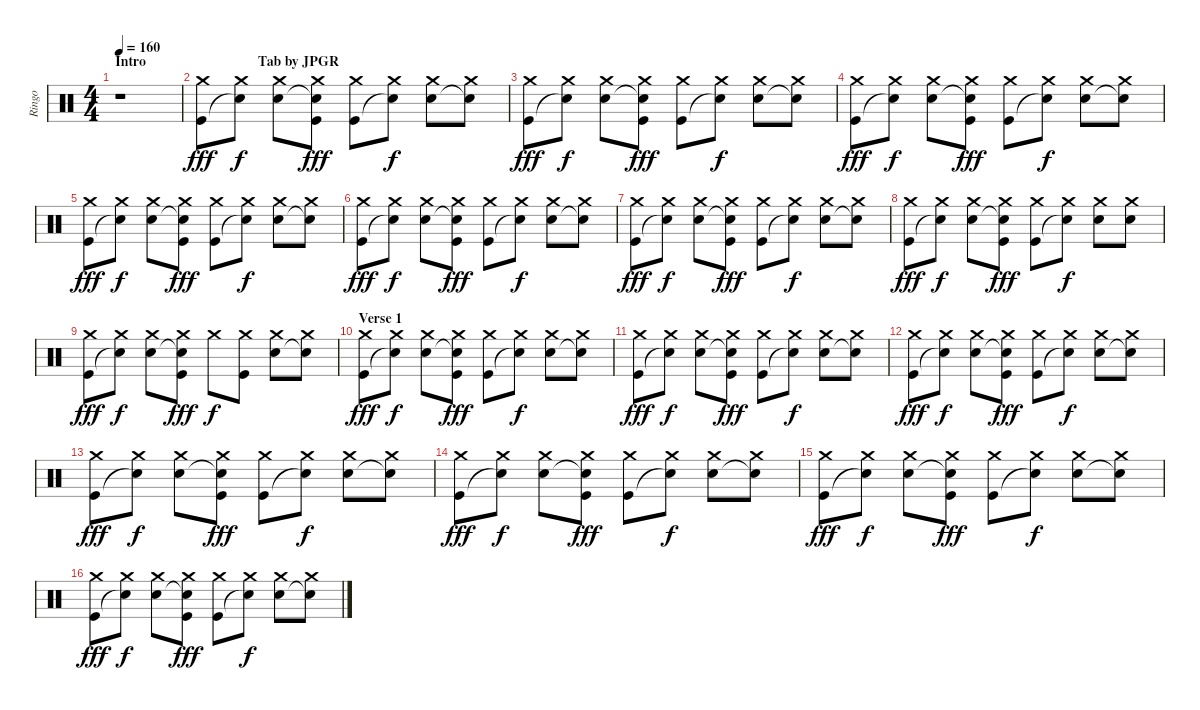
\track ("Ringo" "Ringo") {instrument percussion}
\staff {score}
\articulation defaults
\ts (4 4)
\section ("" "Intro                                Tab by JPGR")
\tempo 160
\clef neutral
\ks c
r.1{dy fff} |
("Crash medium (hit)" "Kick (hit)").8 ("Crash medium (hit)" "Snare (hit)"{t}).8{dy f} ("Crash medium (hit)" "Snare (hit) 2").8 ("Crash medium (hit)" "Snare (hit)"{t} "Kick (hit)").8{dy fff} ("Crash medium (hit)" "Kick (hit)").8 ("Crash medium (hit)" "Snare (hit)"{t}).8{dy f} ("Crash medium (hit)" "Snare (hit) 2").8 ("Crash medium (hit)" "Snare (hit)"{t}).8 |
("Crash medium (hit)" "Kick (hit)").8{dy fff} ("Crash medium (hit)" "Snare (hit)"{t}).8{dy f} ("Crash medium (hit)" "Snare (hit) 2").8 ("Crash medium (hit)" "Snare (hit)"{t} "Kick (hit)").8{dy fff} ("Crash medium (hit)" "Kick (hit)").8 ("Crash medium (hit)" "Snare (hit)"{t}).8{dy f} ("Crash medium (hit)" "Snare (hit) 2").8 ("Crash medium (hit)" "Snare (hit)"{t}).8 |
("Crash medium (hit)" "Kick (hit)").8{dy fff} ("Crash medium (hit)" "Snare (hit)"{t}).8{dy f} ("Crash medium (hit)" "Snare (hit) 2").8 ("Crash medium (hit)" "Snare (hit)"{t} "Kick (hit)").8{dy fff} ("Crash medium (hit)" "Kick (hit)").8 ("Crash medium (hit)" "Snare (hit)"{t}).8{dy f} ("Crash medium (hit)" "Snare (hit) 2").8 ("Crash medium (hit)" "Snare (hit)"{t}).8 |
("Crash medium (hit)" "Kick (hit)").8{dy fff} ("Crash medium (hit)" "Snare (hit)"{t}).8{dy f} ("Crash medium (hit)" "Snare (hit) 2").8 ("Crash medium (hit)" "Snare (hit)"{t} "Kick (hit)").8{dy fff} ("Crash medium (hit)" "Kick (hit)").8 ("Crash medium (hit)" "Snare (hit)"{t}).8{dy f} ("Crash medium (hit)" "Snare (hit) 2").8 ("Crash medium (hit)" "Snare (hit)"{t}).8 |
("Crash medium (hit)" "Kick (hit)").8{dy fff} ("Crash medium (hit)" "Snare (hit)"{t}).8{dy f} ("Crash medium (hit)" "Snare (hit) 2").8 ("Crash medium (hit)" "Snare (hit)"{t} "Kick (hit)").8{dy fff} ("Crash medium (hit)" "Kick (hit)").8 ("Crash medium (hit)" "Snare (hit)"{t}).8{dy f} ("Crash medium (hit)" "Snare (hit) 2").8 ("Crash medium (hit)" "Snare (hit)"{t}).8 |
("Crash medium (hit)" "Kick (hit)").8{dy fff} ("Crash medium (hit)" "Snare (hit)"{t}).8{dy f} ("Crash medium (hit)" "Snare (hit) 2").8 ("Crash medium (hit)" "Snare (hit)"{t} "Kick (hit)").8{dy fff} ("Crash medium (hit)" "Kick (hit)").8 ("Crash medium (hit)" "Snare (hit)"{t}).8{dy f} ("Crash medium (hit)" "Snare (hit) 2").8 ("Crash medium (hit)" "Snare (hit)"{t}).8 |
("Crash medium (hit)" "Kick (hit)").8{dy fff} ("Crash medium (hit)" "Snare (hit)"{t}).8{dy f} ("Crash medium (hit)" "Snare (hit) 2").8 ("Crash medium (hit)" "Snare (hit)"{t} "Kick (hit)").8{dy fff} ("Crash medium (hit)" "Kick (hit)").8 ("Crash medium (hit)" "Snare (hit)"{t}).8{dy f} ("Crash medium (hit)" "Snare (hit) 2").8 ("Crash medium (hit)" "Snare (hit) 2").8 |
("Crash medium (hit)" "Kick (hit)").8{dy fff} ("Crash medium (hit)" "Snare (hit)"{t}).8{dy f} ("Crash medium (hit)" "Snare (hit) 2").8 ("Crash medium (hit)" "Snare (hit)"{t} "Kick (hit)").8{dy fff} "Crash medium (hit)".8{dy f} ("Crash medium (hit)" "Kick (hit)").8 ("Crash medium (hit)" "Snare (hit) 2").8 ("Crash medium (hit)" "Snare (hit)"{t}).8 |
\section ("" "Verse 1")
("Crash medium (hit)" "Kick (hit)").8{dy fff} ("Crash medium (hit)" "Snare (hit)"{t}).8{dy f} ("Crash medium (hit)" "Snare (hit) 2").8 ("Crash medium (hit)" "Snare (hit)"{t} "Kick (hit)").8{dy fff} ("Crash medium (hit)" "Kick (hit)").8 ("Crash medium (hit)" "Snare (hit)"{t}).8{dy f} ("Crash medium (hit)" "Snare (hit) 2").8 ("Crash medium (hit)" "Snare (hit)"{t}).8 |
("Crash medium (hit)" "Kick (hit)").8{dy fff} ("Crash medium (hit)" "Snare (hit)"{t}).8{dy f} ("Crash medium (hit)" "Snare (hit) 2").8 ("Crash medium (hit)" "Snare (hit)"{t} "Kick (hit)").8{dy fff} ("Crash medium (hit)" "Kick (hit)").8 ("Crash medium (hit)" "Snare (hit)"{t}).8{dy f} ("Crash medium (hit)" "Snare (hit) 2").8 ("Crash medium (hit)" "Snare (hit)"{t}).8 |
("Crash medium (hit)" "Kick (hit)").8{dy fff} ("Crash medium (hit)" "Snare (hit)"{t}).8{dy f} ("Crash medium (hit)" "Snare (hit) 2").8 ("Crash medium (hit)" "Snare (hit)"{t} "Kick (hit)").8{dy fff} ("Crash medium (hit)" "Kick (hit)").8 ("Crash medium (hit)" "Snare (hit)"{t}).8{dy f} ("Crash medium (hit)" "Snare (hit) 2").8 ("Crash medium (hit)" "Snare (hit)"{t}).8 |
("Crash medium (hit)" "Kick (hit)").8{dy fff} ("Crash medium (hit)" "Snare (hit)"{t}).8{dy f} ("Crash medium (hit)" "Snare (hit) 2").8 ("Crash medium (hit)" "Snare (hit)"{t} "Kick (hit)").8{dy fff} ("Crash medium (hit)" "Kick (hit)").8 ("Crash medium (hit)" "Snare (hit)"{t}).8{dy f} ("Crash medium (hit)" "Snare (hit) 2").8 ("Crash medium (hit)" "Snare (hit)"{t}).8 |
("Crash medium (hit)" "Kick (hit)").8{dy fff} ("Crash medium (hit)" "Snare (hit)"{t}).8{dy f} ("Crash medium (hit)" "Snare (hit) 2").8 ("Crash medium (hit)" "Snare (hit)"{t} "Kick (hit)").8{dy fff} ("Crash medium (hit)" "Kick (hit)").8 ("Crash medium (hit)" "Snare (hit)"{t}).8{dy f} ("Crash medium (hit)" "Snare (hit) 2").8 ("Crash medium (hit)" "Snare (hit)"{t}).8 |
("Crash medium (hit)" "Kick (hit)").8{dy fff} ("Crash medium (hit)" "Snare (hit)"{t}).8{dy f} ("Crash medium (hit)" "Snare (hit) 2").8 ("Crash medium (hit)" "Snare (hit)"{t} "Kick (hit)").8{dy fff} ("Crash medium (hit)" "Kick (hit)").8 ("Crash medium (hit)" "Snare (hit)"{t}).8{dy f} ("Crash medium (hit)" "Snare (hit) 2").8 ("Crash medium (hit)" "Snare (hit)"{t}).8 |
("Crash medium (hit)" "Kick (hit)").8{dy fff} ("Crash medium (hit)" "Snare (hit)"{t}).8{dy f} ("Crash medium (hit)" "Snare (hit) 2").8 ("Crash medium (hit)" "Snare (hit)"{t} "Kick (hit)").8{dy fff} ("Crash medium (hit)" "Kick (hit)").8 ("Crash medium (hit)" "Snare (hit)"{t}).8{dy f} ("Crash medium (hit)" "Snare (hit) 2").8 ("Crash medium (hit)" "Snare (hit)"{t}).8
